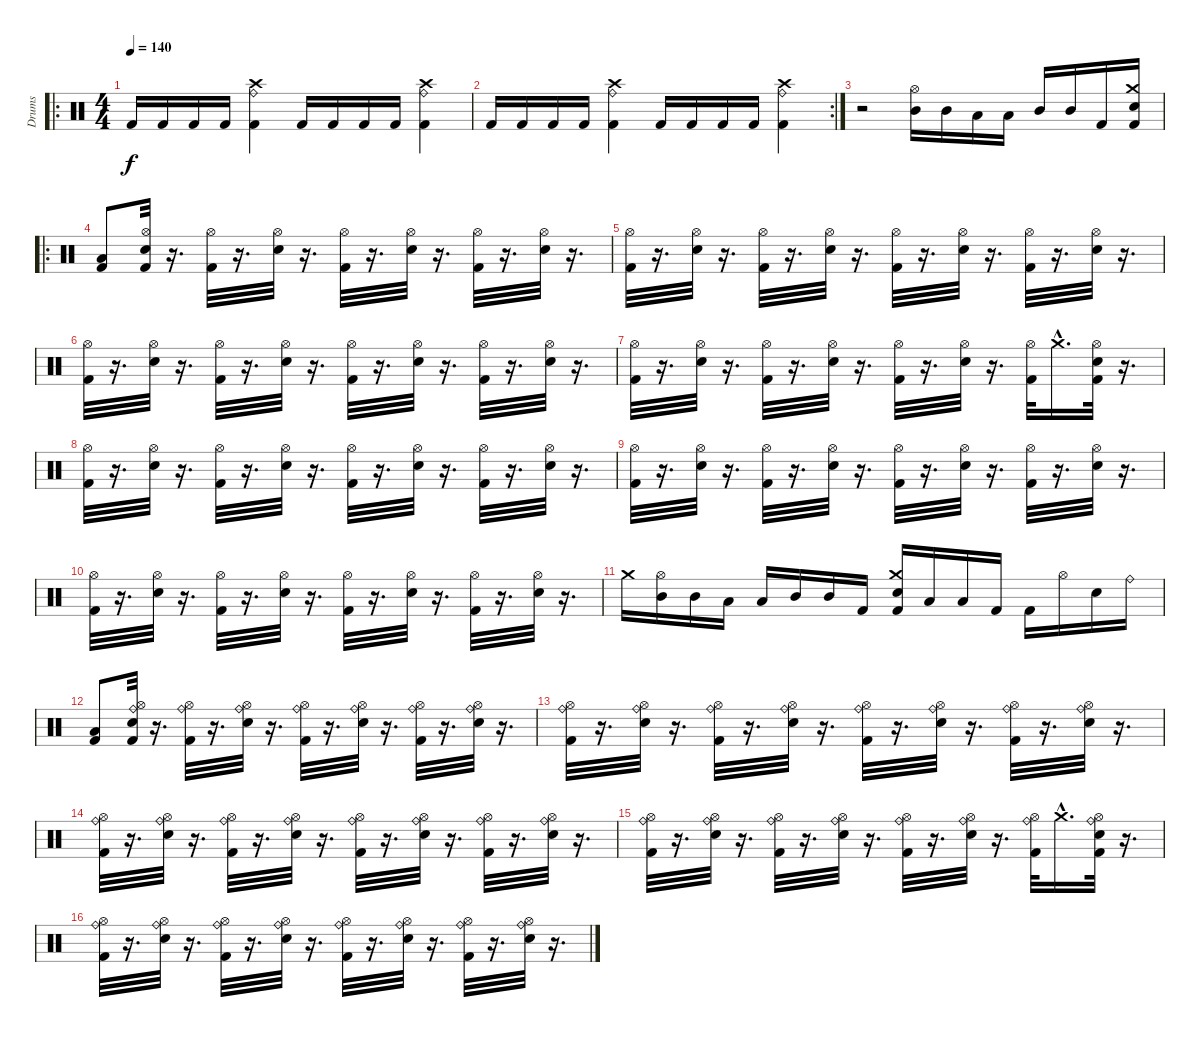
\track ("Drums" "Drums") {instrument percussion}
\staff {score}
\articulation defaults
\ro
\ts (4 4)
\tempo 140
\clef neutral
\ks c "Kick (hit) 2".16{dy f} "Kick (hit) 2".16 "Kick (hit) 2".16 "Kick (hit) 2".16
("Crash high (hit)" "Ride (bell)" "Kick (hit) 2").4 "Kick (hit) 2".16 "Kick (hit) 2".16 "Kick (hit) 2".16 "Kick (hit) 2".16 ("Crash high (hit)" "Ride (bell)" "Kick (hit) 2").4 |
\rc 2 "Kick (hit) 2".16 "Kick (hit) 2".16 "Kick (hit) 2".16 "Kick (hit) 2".16
("Crash high (hit)" "Ride (bell)" "Kick (hit) 2").4 "Kick (hit) 2".16 "Kick (hit) 2".16 "Kick (hit) 2".16 "Kick (hit) 2".16 ("Crash high (hit)" "Ride (bell)" "Kick (hit) 2").4 |
r.2 ("Hi-Hat (open)" "Mid Tom (hit)").16 "Mid Tom (hit)".16 "Low Tom (hit)".16 "Low Tom (hit)".16 "Mid Tom (hit)".16 "Mid Tom (hit)".16 "Kick (hit) 2".16 ("Crash medium (hit)" "Electric Snare (hit)" "Kick (hit) 2").16 |
\ro
("Kick (hit) 2" "Low Tom (hit)").8 ("Hi-Hat (open)" "Kick (hit) 2" "Electric Snare (hit)").32 r.16{d} ("Hi-Hat (open)" "Kick (hit) 2").32 r.16{d} ("Hi-Hat (open)" "Electric Snare (hit)").32 r.16{d} ("Hi-Hat (open)" "Kick (hit) 2").32 r.16{d} ("Hi-Hat (open)" "Electric Snare (hit)").32 r.16{d} ("Hi-Hat (open)" "Kick (hit) 2").32 r.16{d} ("Hi-Hat (open)" "Electric Snare (hit)").32 r.16{d} |
("Hi-Hat (open)" "Kick (hit) 2").32 r.16{d} ("Hi-Hat (open)" "Electric Snare (hit)").32 r.16{d} ("Hi-Hat (open)" "Kick (hit) 2").32 r.16{d} ("Hi-Hat (open)" "Electric Snare (hit)").32 r.16{d} ("Hi-Hat (open)" "Kick (hit) 2").32 r.16{d} ("Hi-Hat (open)" "Electric Snare (hit)").32 r.16{d} ("Hi-Hat (open)" "Kick (hit) 2").32 r.16{d} ("Hi-Hat (open)" "Electric Snare (hit)").32 r.16{d} |
("Hi-Hat (open)" "Kick (hit) 2").32 r.16{d} ("Hi-Hat (open)" "Electric Snare (hit)").32 r.16{d} ("Hi-Hat (open)" "Kick (hit) 2").32 r.16{d} ("Hi-Hat (open)" "Electric Snare (hit)").32 r.16{d} ("Hi-Hat (open)" "Kick (hit) 2").32 r.16{d} ("Hi-Hat (open)" "Electric Snare (hit)").32 r.16{d} ("Hi-Hat (open)" "Kick (hit) 2").32 r.16{d} ("Hi-Hat (open)" "Electric Snare (hit)").32 r.16{d} |
("Hi-Hat (open)" "Kick (hit) 2").32 r.16{d} ("Hi-Hat (open)" "Electric Snare (hit)").32 r.16{d} ("Hi-Hat (open)" "Kick (hit) 2").32 r.16{d} ("Hi-Hat (open)" "Electric Snare (hit)").32 r.16{d} ("Hi-Hat (open)" "Kick (hit) 2").32 r.16{d} ("Hi-Hat (open)" "Electric Snare (hit)").32 r.16{d} ("Hi-Hat (open)" "Kick (hit) 2").32 "Crash medium (hit)"{hac}.16{d} ("Hi-Hat (open)" "Kick (hit) 2" "Electric Snare (hit)").32 r.16{d} |
("Hi-Hat (open)" "Kick (hit) 2").32 r.16{d} ("Hi-Hat (open)" "Electric Snare (hit)").32 r.16{d} ("Hi-Hat (open)" "Kick (hit) 2").32 r.16{d} ("Hi-Hat (open)" "Electric Snare (hit)").32 r.16{d} ("Hi-Hat (open)" "Kick (hit) 2").32 r.16{d} ("Hi-Hat (open)" "Electric Snare (hit)").32 r.16{d} ("Hi-Hat (open)" "Kick (hit) 2").32 r.16{d} ("Hi-Hat (open)" "Electric Snare (hit)").32 r.16{d} |
("Hi-Hat (open)" "Kick (hit) 2").32 r.16{d} ("Hi-Hat (open)" "Electric Snare (hit)").32 r.16{d} ("Hi-Hat (open)" "Kick (hit) 2").32 r.16{d} ("Hi-Hat (open)" "Electric Snare (hit)").32 r.16{d} ("Hi-Hat (open)" "Kick (hit) 2").32 r.16{d} ("Hi-Hat (open)" "Electric Snare (hit)").32 r.16{d} ("Hi-Hat (open)" "Kick (hit) 2").32 r.16{d} ("Hi-Hat (open)" "Electric Snare (hit)").32 r.16{d} |
("Hi-Hat (open)" "Kick (hit) 2").32 r.16{d} ("Hi-Hat (open)" "Electric Snare (hit)").32 r.16{d} ("Hi-Hat (open)" "Kick (hit) 2").32 r.16{d} ("Hi-Hat (open)" "Electric Snare (hit)").32 r.16{d} ("Hi-Hat (open)" "Kick (hit) 2").32 r.16{d} ("Hi-Hat (open)" "Electric Snare (hit)").32 r.16{d} ("Hi-Hat (open)" "Kick (hit) 2").32 r.16{d} ("Hi-Hat (open)" "Electric Snare (hit)").32 r.16{d} |
"Crash medium (hit)".16 ("Hi-Hat (open)" "Mid Tom (hit)").16 "Mid Tom (hit)".16 "Low Tom (hit)".16 "Low Tom (hit)".16 "Mid Tom (hit)".16 "Mid Tom (hit)".16 "Kick (hit) 2".16 ("Crash medium (hit)" "Electric Snare (hit)" "Kick (hit) 2").16 "Low Tom (hit)".16 "Low Tom (hit)".16 "Kick (hit) 2".16 "Kick (hit) 2".16 "Hi-Hat (open)".16 "Electric Snare (hit)".16 "Ride (bell)".16 |
("Kick (hit) 2" "Low Tom (hit)").8 ("Hi-Hat (open)" "Kick (hit) 2" "Electric Snare (hit)" "Ride (bell)").32 r.16{d} ("Hi-Hat (open)" "Kick (hit) 2" "Ride (bell)").32 r.16{d} ("Hi-Hat (open)" "Electric Snare (hit)" "Ride (bell)").32 r.16{d} ("Hi-Hat (open)" "Kick (hit) 2" "Ride (bell)").32 r.16{d} ("Hi-Hat (open)" "Electric Snare (hit)" "Ride (bell)").32 r.16{d} ("Hi-Hat (open)" "Kick (hit) 2" "Ride (bell)").32 r.16{d} ("Hi-Hat (open)" "Electric Snare (hit)" "Ride (bell)").32 r.16{d} |
("Hi-Hat (open)" "Kick (hit) 2" "Ride (bell)").32 r.16{d} ("Hi-Hat (open)" "Electric Snare (hit)" "Ride (bell)").32 r.16{d} ("Hi-Hat (open)" "Kick (hit) 2" "Ride (bell)").32 r.16{d} ("Hi-Hat (open)" "Electric Snare (hit)" "Ride (bell)").32 r.16{d} ("Hi-Hat (open)" "Kick (hit) 2" "Ride (bell)").32 r.16{d} ("Hi-Hat (open)" "Electric Snare (hit)" "Ride (bell)").32 r.16{d} ("Hi-Hat (open)" "Kick (hit) 2" "Ride (bell)").32 r.16{d} ("Hi-Hat (open)" "Electric Snare (hit)" "Ride (bell)").32 r.16{d} |
("Hi-Hat (open)" "Kick (hit) 2" "Ride (bell)").32 r.16{d} ("Hi-Hat (open)" "Electric Snare (hit)" "Ride (bell)").32 r.16{d} ("Hi-Hat (open)" "Kick (hit) 2" "Ride (bell)").32 r.16{d} ("Hi-Hat (open)" "Electric Snare (hit)" "Ride (bell)").32 r.16{d} ("Hi-Hat (open)" "Kick (hit) 2" "Ride (bell)").32 r.16{d} ("Hi-Hat (open)" "Electric Snare (hit)" "Ride (bell)").32 r.16{d} ("Hi-Hat (open)" "Kick (hit) 2" "Ride (bell)").32 r.16{d} ("Hi-Hat (open)" "Electric Snare (hit)" "Ride (bell)").32 r.16{d} |
("Hi-Hat (open)" "Kick (hit) 2" "Ride (bell)").32 r.16{d} ("Hi-Hat (open)" "Electric Snare (hit)" "Ride (bell)").32 r.16{d} ("Hi-Hat (open)" "Kick (hit) 2" "Ride (bell)").32 r.16{d} ("Hi-Hat (open)" "Electric Snare (hit)" "Ride (bell)").32 r.16{d} ("Hi-Hat (open)" "Kick (hit) 2" "Ride (bell)").32 r.16{d} ("Hi-Hat (open)" "Electric Snare (hit)" "Ride (bell)").32 r.16{d} ("Hi-Hat (open)" "Kick (hit) 2" "Ride (bell)").32 "Crash medium (hit)"{hac}.16{d} ("Hi-Hat (open)" "Kick (hit) 2" "Electric Snare (hit)" "Ride (bell)").32 r.16{d} |
("Hi-Hat (open)" "Kick (hit) 2" "Ride (bell)").32 r.16{d} ("Hi-Hat (open)" "Electric Snare (hit)" "Ride (bell)").32 r.16{d} ("Hi-Hat (open)" "Kick (hit) 2" "Ride (bell)").32 r.16{d} ("Hi-Hat (open)" "Electric Snare (hit)" "Ride (bell)").32 r.16{d} ("Hi-Hat (open)" "Kick (hit) 2" "Ride (bell)").32 r.16{d} ("Hi-Hat (open)" "Electric Snare (hit)" "Ride (bell)").32 r.16{d} ("Hi-Hat (open)" "Kick (hit) 2" "Ride (bell)").32 r.16{d} ("Hi-Hat (open)" "Electric Snare (hit)" "Ride (bell)").32 r.16{d}
